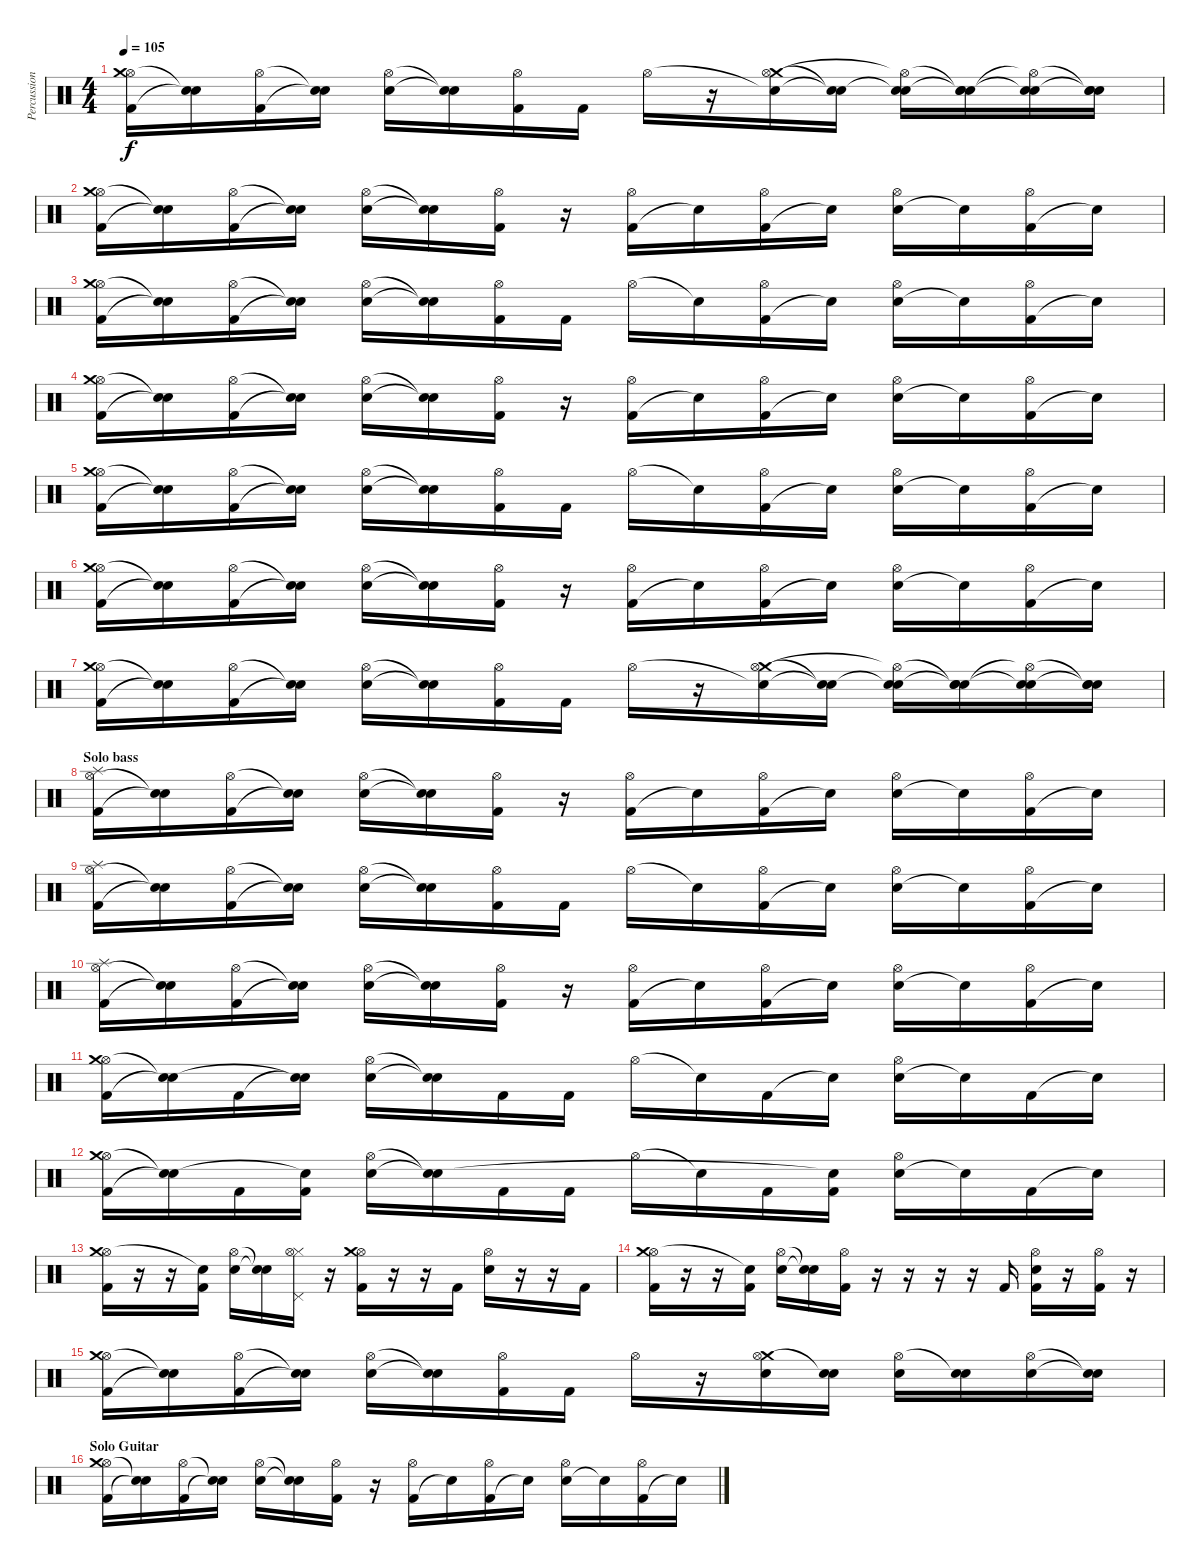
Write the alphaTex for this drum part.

\track ("Percussion" "Percussion") {instrument percussion}
\staff {score}
\articulation defaults
\ts (4 4)
\tempo 105
\clef neutral
\ks c
("Kick (hit) 2" "Hi-Hat (open)" "Crash medium (hit)").16{dy f} ("Snare (hit)"{t} "Snare (hit)"{t}).16 ("Kick (hit) 2" "Hi-Hat (open)").16 ("Snare (hit)"{t} "Snare (hit)"{t}).16 ("Electric Snare (hit)" "Hi-Hat (open)").16 ("Snare (hit)"{t} "Snare (hit)"{t}).16 ("Kick (hit) 2" "Hi-Hat (open)").16 "Kick (hit) 2".16 "Hi-Hat (open)".16 r.16 ("Snare (hit) 2"{t} "Crash medium (hit)" "Hi-Hat (open)").16 ("Snare (hit) 2"{t} "Snare (hit)"{t}).16 ("Snare (hit) 2"{t} "Snare (hit) 2" "Hi-Hat (open)"{t}).16 ("Snare (hit) 2"{t} "Snare (hit) 2" "Snare (hit)"{t}).16 ("Snare (hit) 2"{t} "Snare (hit) 2" "Hi-Hat (open)"{t}).16 ("Snare (hit) 2"{t} "Snare (hit) 2" "Snare (hit)"{t}).16 |
("Kick (hit) 2" "Hi-Hat (open)" "Crash medium (hit)").16 ("Snare (hit)"{t} "Snare (hit)"{t}).16 ("Kick (hit) 2" "Hi-Hat (open)").16 ("Snare (hit)"{t} "Snare (hit)"{t}).16 ("Electric Snare (hit)" "Hi-Hat (open)").16 ("Snare (hit)"{t} "Snare (hit)"{t}).16 ("Kick (hit) 2" "Hi-Hat (open)").16 r.16 ("Kick (hit) 2" "Hi-Hat (open)").16 "Snare (hit)"{t}.16 ("Kick (hit) 2" "Hi-Hat (open)").16 "Snare (hit)"{t}.16 ("Snare (hit) 2" "Hi-Hat (open)").16 "Snare (hit)"{t}.16 ("Kick (hit) 2" "Hi-Hat (open)").16 "Snare (hit)"{t}.16 |
("Kick (hit) 2" "Hi-Hat (open)" "Crash medium (hit)").16 ("Snare (hit)"{t} "Snare (hit)"{t}).16 ("Kick (hit) 2" "Hi-Hat (open)").16 ("Snare (hit)"{t} "Snare (hit)"{t}).16 ("Electric Snare (hit)" "Hi-Hat (open)").16 ("Snare (hit)"{t} "Snare (hit)"{t}).16 ("Kick (hit) 2" "Hi-Hat (open)").16 "Kick (hit) 2".16 "Hi-Hat (open)".16 "Snare (hit)"{t}.16 ("Kick (hit) 2" "Hi-Hat (open)").16 "Snare (hit)"{t}.16 ("Snare (hit) 2" "Hi-Hat (open)").16 "Snare (hit)"{t}.16 ("Kick (hit) 2" "Hi-Hat (open)").16 "Snare (hit)"{t}.16 |
("Kick (hit) 2" "Hi-Hat (open)" "Crash medium (hit)").16 ("Snare (hit)"{t} "Snare (hit)"{t}).16 ("Kick (hit) 2" "Hi-Hat (open)").16 ("Snare (hit)"{t} "Snare (hit)"{t}).16 ("Electric Snare (hit)" "Hi-Hat (open)").16 ("Snare (hit)"{t} "Snare (hit)"{t}).16 ("Kick (hit) 2" "Hi-Hat (open)").16 r.16 ("Kick (hit) 2" "Hi-Hat (open)").16 "Snare (hit)"{t}.16 ("Kick (hit) 2" "Hi-Hat (open)").16 "Snare (hit)"{t}.16 ("Snare (hit) 2" "Hi-Hat (open)").16 "Snare (hit)"{t}.16 ("Kick (hit) 2" "Hi-Hat (open)").16 "Snare (hit)"{t}.16 |
("Kick (hit) 2" "Hi-Hat (open)" "Crash medium (hit)").16 ("Snare (hit)"{t} "Snare (hit)"{t}).16 ("Kick (hit) 2" "Hi-Hat (open)").16 ("Snare (hit)"{t} "Snare (hit)"{t}).16 ("Electric Snare (hit)" "Hi-Hat (open)").16 ("Snare (hit)"{t} "Snare (hit)"{t}).16 ("Kick (hit) 2" "Hi-Hat (open)").16 "Kick (hit) 2".16 "Hi-Hat (open)".16 "Snare (hit)"{t}.16 ("Kick (hit) 2" "Hi-Hat (open)").16 "Snare (hit)"{t}.16 ("Snare (hit) 2" "Hi-Hat (open)").16 "Snare (hit)"{t}.16 ("Kick (hit) 2" "Hi-Hat (open)").16 "Snare (hit)"{t}.16 |
("Kick (hit) 2" "Hi-Hat (open)" "Crash medium (hit)").16 ("Snare (hit)"{t} "Snare (hit)"{t}).16 ("Kick (hit) 2" "Hi-Hat (open)").16 ("Snare (hit)"{t} "Snare (hit)"{t}).16 ("Electric Snare (hit)" "Hi-Hat (open)").16 ("Snare (hit)"{t} "Snare (hit)"{t}).16 ("Kick (hit) 2" "Hi-Hat (open)").16 r.16 ("Kick (hit) 2" "Hi-Hat (open)").16 "Snare (hit)"{t}.16 ("Kick (hit) 2" "Hi-Hat (open)").16 "Snare (hit)"{t}.16 ("Snare (hit) 2" "Hi-Hat (open)").16 "Snare (hit)"{t}.16 ("Kick (hit) 2" "Hi-Hat (open)").16 "Snare (hit)"{t}.16 |
("Kick (hit) 2" "Hi-Hat (open)" "Crash medium (hit)").16 ("Snare (hit)"{t} "Snare (hit)"{t}).16 ("Kick (hit) 2" "Hi-Hat (open)").16 ("Snare (hit)"{t} "Snare (hit)"{t}).16 ("Electric Snare (hit)" "Hi-Hat (open)").16 ("Snare (hit)"{t} "Snare (hit)"{t}).16 ("Kick (hit) 2" "Hi-Hat (open)").16 "Kick (hit) 2".16 "Hi-Hat (open)".16 r.16 ("Snare (hit) 2"{t} "Crash medium (hit)" "Hi-Hat (open)").16 ("Snare (hit) 2"{t} "Snare (hit)"{t}).16 ("Snare (hit) 2"{t} "Snare (hit) 2" "Hi-Hat (open)"{t}).16 ("Snare (hit) 2"{t} "Snare (hit) 2" "Snare (hit)"{t}).16 ("Snare (hit) 2"{t} "Snare (hit) 2" "Hi-Hat (open)"{t}).16 ("Snare (hit) 2"{t} "Snare (hit) 2" "Snare (hit)"{t}).16 |
\section ("" "Solo bass")
("Kick (hit) 2" "Hi-Hat (open)" "Splash (hit)").16 ("Snare (hit)"{t} "Snare (hit)"{t}).16 ("Kick (hit) 2" "Hi-Hat (open)").16 ("Snare (hit)"{t} "Snare (hit)"{t}).16 ("Electric Snare (hit)" "Hi-Hat (open)").16 ("Snare (hit)"{t} "Snare (hit)"{t}).16 ("Kick (hit) 2" "Hi-Hat (open)").16 r.16 ("Kick (hit) 2" "Hi-Hat (open)").16 "Snare (hit)"{t}.16 ("Kick (hit) 2" "Hi-Hat (open)").16 "Snare (hit)"{t}.16 ("Snare (hit) 2" "Hi-Hat (open)").16 "Snare (hit)"{t}.16 ("Kick (hit) 2" "Hi-Hat (open)").16 "Snare (hit)"{t}.16 |
("Kick (hit) 2" "Hi-Hat (open)" "Splash (hit)").16 ("Snare (hit)"{t} "Snare (hit)"{t}).16 ("Kick (hit) 2" "Hi-Hat (open)").16 ("Snare (hit)"{t} "Snare (hit)"{t}).16 ("Electric Snare (hit)" "Hi-Hat (open)").16 ("Snare (hit)"{t} "Snare (hit)"{t}).16 ("Kick (hit) 2" "Hi-Hat (open)").16 "Kick (hit) 2".16 "Hi-Hat (open)".16 "Snare (hit)"{t}.16 ("Kick (hit) 2" "Hi-Hat (open)").16 "Snare (hit)"{t}.16 ("Snare (hit) 2" "Hi-Hat (open)").16 "Snare (hit)"{t}.16 ("Kick (hit) 2" "Hi-Hat (open)").16 "Snare (hit)"{t}.16 |
("Kick (hit) 2" "Hi-Hat (open)" "Splash (hit)").16 ("Snare (hit)"{t} "Snare (hit)"{t}).16 ("Kick (hit) 2" "Hi-Hat (open)").16 ("Snare (hit)"{t} "Snare (hit)"{t}).16 ("Electric Snare (hit)" "Hi-Hat (open)").16 ("Snare (hit)"{t} "Snare (hit)"{t}).16 ("Kick (hit) 2" "Hi-Hat (open)").16 r.16 ("Kick (hit) 2" "Hi-Hat (open)").16 "Snare (hit)"{t}.16 ("Kick (hit) 2" "Hi-Hat (open)").16 "Snare (hit)"{t}.16 ("Snare (hit) 2" "Hi-Hat (open)").16 "Snare (hit)"{t}.16 ("Kick (hit) 2" "Hi-Hat (open)").16 "Snare (hit)"{t}.16 |
("Kick (hit) 2" "Hi-Hat (open)" "Crash medium (hit)").16 ("Snare (hit)"{t} "Snare (hit)"{t}).16 "Kick (hit) 2".16 ("Snare (hit)"{t} "Snare (hit)"{t}).16 ("Electric Snare (hit)" "Hi-Hat (open)").16 ("Snare (hit)"{t} "Snare (hit)"{t}).16 "Kick (hit) 2".16 "Kick (hit) 2".16 "Hi-Hat (open)".16 "Snare (hit)"{t}.16 "Kick (hit) 2".16 "Snare (hit)"{t}.16 ("Snare (hit) 2" "Hi-Hat (open)").16 "Snare (hit)"{t}.16 "Kick (hit) 2".16 "Snare (hit)"{t}.16 |
("Kick (hit) 2" "Hi-Hat (open)" "Crash medium (hit)").16 ("Snare (hit)"{t} "Snare (hit)"{t}).16 "Kick (hit) 2".16 ("Kick (hit) 2" "Snare (hit)"{t}).16 ("Electric Snare (hit)" "Hi-Hat (open)").16 ("Snare (hit)"{t} "Snare (hit)"{t}).16 "Kick (hit) 2".16 "Kick (hit) 2".16 "Hi-Hat (open)".16 "Snare (hit)"{t}.16 "Kick (hit) 2".16 ("Kick (hit) 2" "Snare (hit)"{t}).16 ("Snare (hit) 2" "Hi-Hat (open)").16 "Snare (hit)"{t}.16 "Kick (hit) 2".16 "Snare (hit)"{t}.16 |
("Kick (hit) 2" "Hi-Hat (open)" "Crash medium (hit)").16 r.16 r.16 ("Kick (hit) 2" "Snare (hit)"{t}).16 ("Electric Snare (hit)" "Hi-Hat (open)").16 ("Snare (hit)"{t} "Snare (hit)"{t}).16 ("Hi-Hat (closed)" "Pedal Hi-Hat (hit)" "Hi-Hat (open)").16 r.16 ("Kick (hit) 2" "Hi-Hat (open)" "Crash medium (hit)").16 r.16 r.16 "Kick (hit) 2".16 ("Electric Snare (hit)" "Hi-Hat (open)").16 r.16 r.16 "Kick (hit) 2".16 |
("Kick (hit) 2" "Hi-Hat (open)" "Crash medium (hit)").16 r.16 r.16 ("Kick (hit) 2" "Snare (hit)"{t}).16 ("Electric Snare (hit)" "Hi-Hat (open)").16 ("Snare (hit)"{t} "Snare (hit)"{t}).16 ("Kick (hit) 2" "Hi-Hat (open)").16 r.16 r.16 r.16 r.16 "Kick (hit) 2".16 ("Electric Snare (hit)" "Hi-Hat (open)" "Kick (hit) 2").16 r.16 ("Kick (hit) 2" "Hi-Hat (open)").16 r.16 |
("Kick (hit) 2" "Hi-Hat (open)" "Crash medium (hit)").16 ("Snare (hit)"{t} "Snare (hit)"{t}).16 ("Kick (hit) 2" "Hi-Hat (open)").16 ("Snare (hit)"{t} "Snare (hit)"{t}).16 ("Electric Snare (hit)" "Hi-Hat (open)").16 ("Snare (hit)"{t} "Snare (hit)"{t}).16 ("Kick (hit) 2" "Hi-Hat (open)").16 "Kick (hit) 2".16 "Hi-Hat (open)".16 r.16 ("Snare (hit) 2" "Crash medium (hit)" "Hi-Hat (open)").16 ("Snare (hit) 2" "Snare (hit)"{t}).16 ("Snare (hit) 2" "Hi-Hat (open)").16 ("Snare (hit) 2" "Snare (hit)"{t}).16 ("Snare (hit) 2" "Hi-Hat (open)").16 ("Snare (hit) 2"{t} "Snare (hit)"{t}).16 |
\section ("" "Solo Guitar")
("Kick (hit) 2" "Hi-Hat (open)" "Crash medium (hit)").16 ("Snare (hit)"{t} "Snare (hit)"{t}).16 ("Kick (hit) 2" "Hi-Hat (open)").16 ("Snare (hit)"{t} "Snare (hit)"{t}).16 ("Electric Snare (hit)" "Hi-Hat (open)").16 ("Snare (hit)"{t} "Snare (hit)"{t}).16 ("Kick (hit) 2" "Hi-Hat (open)").16 r.16 ("Kick (hit) 2" "Hi-Hat (open)").16 "Snare (hit)"{t}.16 ("Kick (hit) 2" "Hi-Hat (open)").16 "Snare (hit)"{t}.16 ("Snare (hit) 2" "Hi-Hat (open)").16 "Snare (hit)"{t}.16 ("Kick (hit) 2" "Hi-Hat (open)").16 "Snare (hit)"{t}.16
